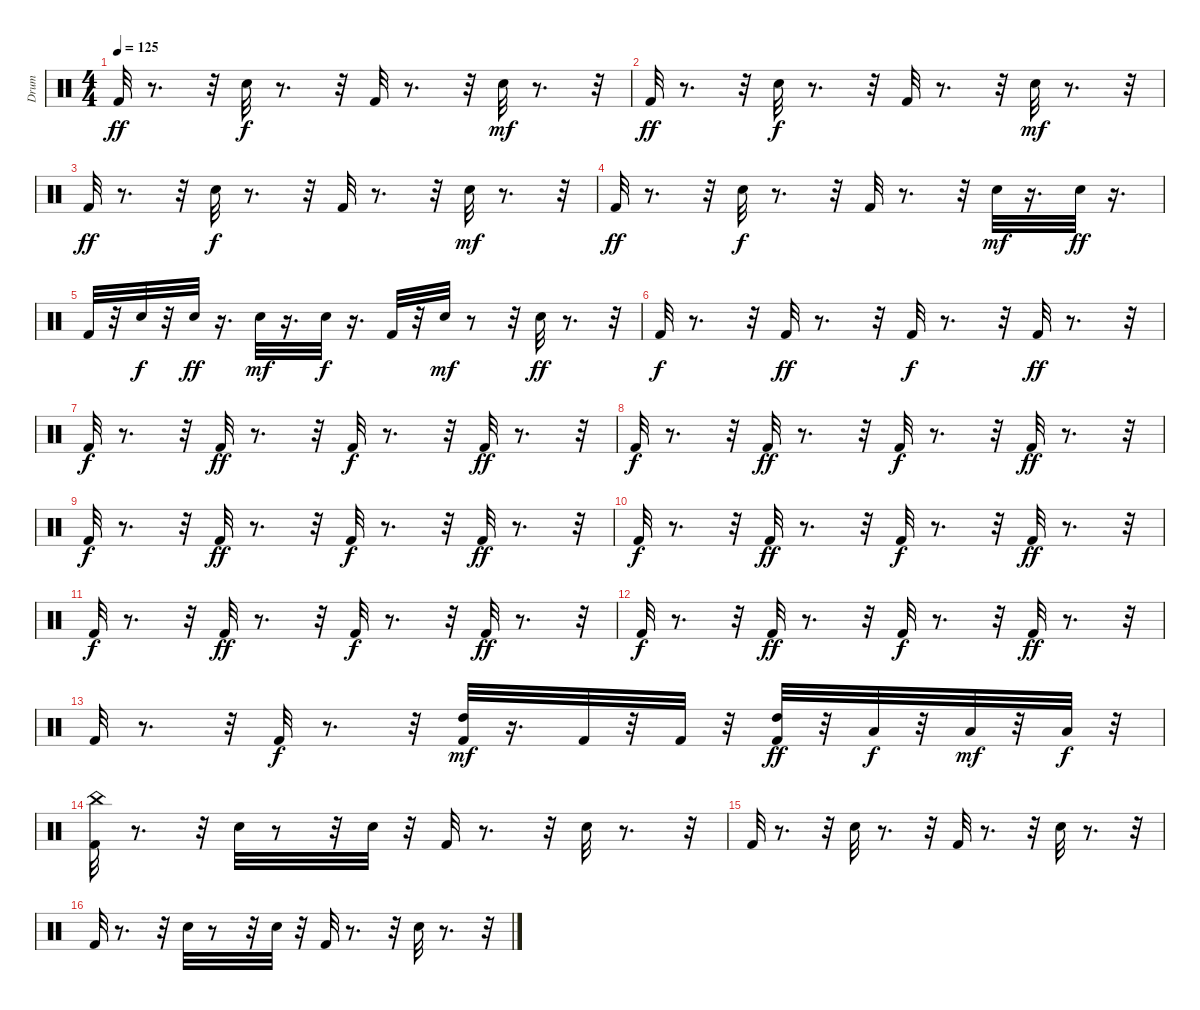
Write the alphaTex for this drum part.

\track ("Drum" "Drum") {instrument percussion}
\staff {score}
\articulation defaults
\ts (4 4)
\tempo 125
\clef neutral
\ks c "Kick (hit) 2".32{dy ff}
r.8{d} r.32 "Snare (hit) 2".32{dy f} r.8{d} r.32 "Kick (hit) 2".32 r.8{d} r.32 "Snare (hit) 2".32{dy mf} r.8{d} r.32 |
"Kick (hit) 2".32{dy ff} r.8{d} r.32 "Snare (hit) 2".32{dy f} r.8{d} r.32 "Kick (hit) 2".32 r.8{d} r.32 "Snare (hit) 2".32{dy mf} r.8{d} r.32 |
"Kick (hit) 2".32{dy ff} r.8{d} r.32 "Snare (hit) 2".32{dy f} r.8{d} r.32 "Kick (hit) 2".32 r.8{d} r.32 "Snare (hit) 2".32{dy mf} r.8{d} r.32 |
"Kick (hit) 2".32{dy ff} r.8{d} r.32 "Snare (hit) 2".32{dy f} r.8{d} r.32 "Kick (hit) 2".32 r.8{d} r.32 "Snare (hit) 2".32{dy mf} r.16{d} "Snare (hit) 2".32{dy ff} r.16{d} |
"Kick (hit) 2".32 r.32 "Snare (hit) 2".32{dy f} r.32 "Snare (hit) 2".32{dy ff} r.16{d} "Snare (hit) 2".32{dy mf} r.16{d} "Snare (hit) 2".32{dy f} r.16{d} "Kick (hit) 2".32 r.32 "Snare (hit) 2".32{dy mf} r.8 r.32 "Snare (hit) 2".32{dy ff} r.8{d} r.32 |
"Kick (hit) 2".32{dy f} r.8{d} r.32 "Kick (hit) 2".32{dy ff} r.8{d} r.32 "Kick (hit) 2".32{dy f} r.8{d} r.32 "Kick (hit) 2".32{dy ff} r.8{d} r.32 |
"Kick (hit) 2".32{dy f} r.8{d} r.32 "Kick (hit) 2".32{dy ff} r.8{d} r.32 "Kick (hit) 2".32{dy f} r.8{d} r.32 "Kick (hit) 2".32{dy ff} r.8{d} r.32 |
"Kick (hit) 2".32{dy f} r.8{d} r.32 "Kick (hit) 2".32{dy ff} r.8{d} r.32 "Kick (hit) 2".32{dy f} r.8{d} r.32 "Kick (hit) 2".32{dy ff} r.8{d} r.32 |
"Kick (hit) 2".32{dy f} r.8{d} r.32 "Kick (hit) 2".32{dy ff} r.8{d} r.32 "Kick (hit) 2".32{dy f} r.8{d} r.32 "Kick (hit) 2".32{dy ff} r.8{d} r.32 |
"Kick (hit) 2".32{dy f} r.8{d} r.32 "Kick (hit) 2".32{dy ff} r.8{d} r.32 "Kick (hit) 2".32{dy f} r.8{d} r.32 "Kick (hit) 2".32{dy ff} r.8{d} r.32 |
"Kick (hit) 2".32{dy f} r.8{d} r.32 "Kick (hit) 2".32{dy ff} r.8{d} r.32 "Kick (hit) 2".32{dy f} r.8{d} r.32 "Kick (hit) 2".32{dy ff} r.8{d} r.32 |
"Kick (hit) 2".32{dy f} r.8{d} r.32 "Kick (hit) 2".32{dy ff} r.8{d} r.32 "Kick (hit) 2".32{dy f} r.8{d} r.32 "Kick (hit) 2".32{dy ff} r.8{d} r.32 |
"Kick (hit) 2".32 r.8{d} r.32 "Kick (hit) 2".32{dy f} r.8{d} r.32 ("Kick (hit) 2" "High Tom (hit)").32{dy mf} r.16{d} "Kick (hit) 2".32 r.32 "Kick (hit) 2".32 r.32 ("High Tom (hit)" "Kick (hit) 2").32{dy ff} r.32 "Low Tom (hit)".32{dy f} r.32 "Low Floor Tom (hit)".32{dy mf} r.32 "Low Floor Tom (hit)".32{dy f} r.32 |
("China (hit)" "Kick (hit) 2").32{volume 16} r.8{d} r.32 "Snare (hit) 2".32 r.8 r.32 "Snare (hit) 2".32 r.32 "Kick (hit) 2".32 r.8{d} r.32 "Snare (hit) 2".32 r.8{d} r.32 |
"Kick (hit) 2".32 r.8{d} r.32 "Snare (hit) 2".32 r.8{d} r.32 "Kick (hit) 2".32 r.8{d} r.32 "Snare (hit) 2".32 r.8{d} r.32 |
"Kick (hit) 2".32 r.8{d} r.32 "Snare (hit) 2".32 r.8 r.32 "Snare (hit) 2".32 r.32 "Kick (hit) 2".32 r.8{d} r.32 "Snare (hit) 2".32 r.8{d} r.32
